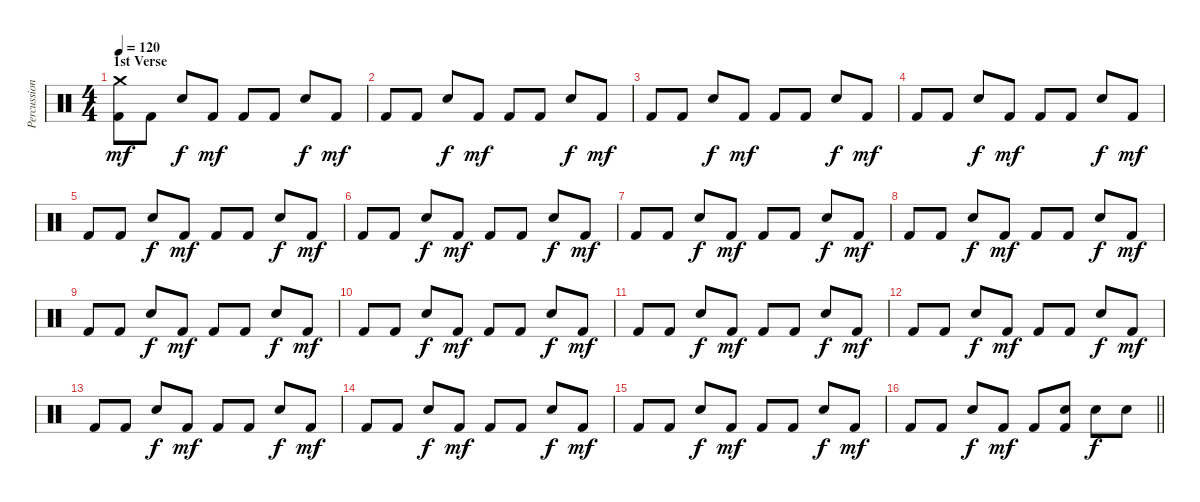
\track ("Percussion" "Percussion") {instrument percussion}
\staff {score}
\articulation defaults
\ts (4 4)
\section ("" "1st Verse")
\tempo 120
\clef neutral
\ks c
("Crash medium (hit)" "Kick (hit) 2").8{dy mf} "Kick (hit) 2".8 "Electric Snare (hit)".8{dy f} "Kick (hit) 2".8{dy mf} "Kick (hit) 2".8 "Kick (hit) 2".8 "Electric Snare (hit)".8{dy f} "Kick (hit) 2".8{dy mf} |
"Kick (hit) 2".8 "Kick (hit) 2".8 "Electric Snare (hit)".8{dy f} "Kick (hit) 2".8{dy mf} "Kick (hit) 2".8 "Kick (hit) 2".8 "Electric Snare (hit)".8{dy f} "Kick (hit) 2".8{dy mf} |
"Kick (hit) 2".8 "Kick (hit) 2".8 "Electric Snare (hit)".8{dy f} "Kick (hit) 2".8{dy mf} "Kick (hit) 2".8 "Kick (hit) 2".8 "Electric Snare (hit)".8{dy f} "Kick (hit) 2".8{dy mf} |
"Kick (hit) 2".8 "Kick (hit) 2".8 "Electric Snare (hit)".8{dy f} "Kick (hit) 2".8{dy mf} "Kick (hit) 2".8 "Kick (hit) 2".8 "Electric Snare (hit)".8{dy f} "Kick (hit) 2".8{dy mf} |
"Kick (hit) 2".8 "Kick (hit) 2".8 "Electric Snare (hit)".8{dy f} "Kick (hit) 2".8{dy mf} "Kick (hit) 2".8 "Kick (hit) 2".8 "Electric Snare (hit)".8{dy f} "Kick (hit) 2".8{dy mf} |
"Kick (hit) 2".8 "Kick (hit) 2".8 "Electric Snare (hit)".8{dy f} "Kick (hit) 2".8{dy mf} "Kick (hit) 2".8 "Kick (hit) 2".8 "Electric Snare (hit)".8{dy f} "Kick (hit) 2".8{dy mf} |
"Kick (hit) 2".8 "Kick (hit) 2".8 "Electric Snare (hit)".8{dy f} "Kick (hit) 2".8{dy mf} "Kick (hit) 2".8 "Kick (hit) 2".8 "Electric Snare (hit)".8{dy f} "Kick (hit) 2".8{dy mf} |
"Kick (hit) 2".8 "Kick (hit) 2".8 "Electric Snare (hit)".8{dy f} "Kick (hit) 2".8{dy mf} "Kick (hit) 2".8 "Kick (hit) 2".8 "Electric Snare (hit)".8{dy f} "Kick (hit) 2".8{dy mf} |
"Kick (hit) 2".8 "Kick (hit) 2".8 "Electric Snare (hit)".8{dy f} "Kick (hit) 2".8{dy mf} "Kick (hit) 2".8 "Kick (hit) 2".8 "Electric Snare (hit)".8{dy f} "Kick (hit) 2".8{dy mf} |
"Kick (hit) 2".8 "Kick (hit) 2".8 "Electric Snare (hit)".8{dy f} "Kick (hit) 2".8{dy mf} "Kick (hit) 2".8 "Kick (hit) 2".8 "Electric Snare (hit)".8{dy f} "Kick (hit) 2".8{dy mf} |
"Kick (hit) 2".8 "Kick (hit) 2".8 "Electric Snare (hit)".8{dy f} "Kick (hit) 2".8{dy mf} "Kick (hit) 2".8 "Kick (hit) 2".8 "Electric Snare (hit)".8{dy f} "Kick (hit) 2".8{dy mf} |
"Kick (hit) 2".8 "Kick (hit) 2".8 "Electric Snare (hit)".8{dy f} "Kick (hit) 2".8{dy mf} "Kick (hit) 2".8 "Kick (hit) 2".8 "Electric Snare (hit)".8{dy f} "Kick (hit) 2".8{dy mf} |
"Kick (hit) 2".8 "Kick (hit) 2".8 "Electric Snare (hit)".8{dy f} "Kick (hit) 2".8{dy mf} "Kick (hit) 2".8 "Kick (hit) 2".8 "Electric Snare (hit)".8{dy f} "Kick (hit) 2".8{dy mf} |
"Kick (hit) 2".8 "Kick (hit) 2".8 "Electric Snare (hit)".8{dy f} "Kick (hit) 2".8{dy mf} "Kick (hit) 2".8 "Kick (hit) 2".8 "Electric Snare (hit)".8{dy f} "Kick (hit) 2".8{dy mf} |
"Kick (hit) 2".8 "Kick (hit) 2".8 "Electric Snare (hit)".8{dy f} "Kick (hit) 2".8{dy mf} "Kick (hit) 2".8 "Kick (hit) 2".8 "Electric Snare (hit)".8{dy f} "Kick (hit) 2".8{dy mf} |
\barLineRight lightlight "Kick (hit) 2".8 "Kick (hit) 2".8 "Electric Snare (hit)".8{dy f} "Kick (hit) 2".8{dy mf} "Kick (hit) 2".8
("Electric Snare (hit)" "Kick (hit) 2").8 "Electric Snare (hit)".8{dy f} "Electric Snare (hit)".8
